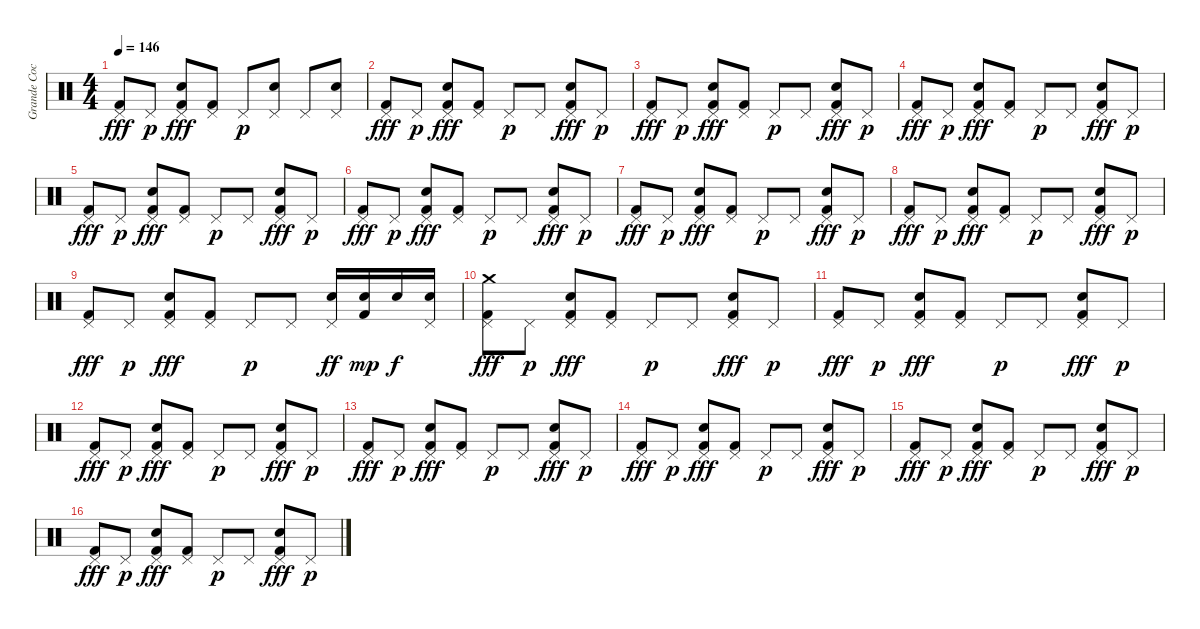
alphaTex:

\track ("Grande Coco !" "Grande Coc") {instrument percussion}
\staff {score}
\articulation defaults
\ts (4 4)
\tempo 146
\clef neutral
\ks c
("Pedal Hi-Hat (hit)" "Kick (hit) 2").8{dy fff} "Pedal Hi-Hat (hit)".8{dy p} ("Pedal Hi-Hat (hit)" "Electric Snare (hit)" "Kick (hit) 2").8{dy fff} ("Pedal Hi-Hat (hit)" "Kick (hit) 2").8 "Pedal Hi-Hat (hit)".8{dy p} ("Pedal Hi-Hat (hit)" "Electric Snare (hit)").8 "Pedal Hi-Hat (hit)".8 ("Pedal Hi-Hat (hit)" "Electric Snare (hit)").8 |
("Pedal Hi-Hat (hit)" "Kick (hit) 2").8{dy fff} "Pedal Hi-Hat (hit)".8{dy p} ("Pedal Hi-Hat (hit)" "Electric Snare (hit)" "Kick (hit) 2").8{dy fff} ("Pedal Hi-Hat (hit)" "Kick (hit) 2").8 "Pedal Hi-Hat (hit)".8{dy p} "Pedal Hi-Hat (hit)".8 ("Pedal Hi-Hat (hit)" "Electric Snare (hit)" "Kick (hit) 2").8{dy fff} "Pedal Hi-Hat (hit)".8{dy p} |
("Pedal Hi-Hat (hit)" "Kick (hit) 2").8{dy fff} "Pedal Hi-Hat (hit)".8{dy p} ("Pedal Hi-Hat (hit)" "Electric Snare (hit)" "Kick (hit) 2").8{dy fff} ("Pedal Hi-Hat (hit)" "Kick (hit) 2").8 "Pedal Hi-Hat (hit)".8{dy p} "Pedal Hi-Hat (hit)".8 ("Pedal Hi-Hat (hit)" "Electric Snare (hit)" "Kick (hit) 2").8{dy fff} "Pedal Hi-Hat (hit)".8{dy p} |
("Pedal Hi-Hat (hit)" "Kick (hit) 2").8{dy fff} "Pedal Hi-Hat (hit)".8{dy p} ("Pedal Hi-Hat (hit)" "Electric Snare (hit)" "Kick (hit) 2").8{dy fff} ("Pedal Hi-Hat (hit)" "Kick (hit) 2").8 "Pedal Hi-Hat (hit)".8{dy p} "Pedal Hi-Hat (hit)".8 ("Pedal Hi-Hat (hit)" "Electric Snare (hit)" "Kick (hit) 2").8{dy fff} "Pedal Hi-Hat (hit)".8{dy p} |
("Pedal Hi-Hat (hit)" "Kick (hit) 2").8{dy fff} "Pedal Hi-Hat (hit)".8{dy p} ("Pedal Hi-Hat (hit)" "Electric Snare (hit)" "Kick (hit) 2").8{dy fff} ("Pedal Hi-Hat (hit)" "Kick (hit) 2").8 "Pedal Hi-Hat (hit)".8{dy p} "Pedal Hi-Hat (hit)".8 ("Pedal Hi-Hat (hit)" "Electric Snare (hit)" "Kick (hit) 2").8{dy fff} "Pedal Hi-Hat (hit)".8{dy p} |
("Pedal Hi-Hat (hit)" "Kick (hit) 2").8{dy fff} "Pedal Hi-Hat (hit)".8{dy p} ("Pedal Hi-Hat (hit)" "Electric Snare (hit)" "Kick (hit) 2").8{dy fff} ("Pedal Hi-Hat (hit)" "Kick (hit) 2").8 "Pedal Hi-Hat (hit)".8{dy p} "Pedal Hi-Hat (hit)".8 ("Pedal Hi-Hat (hit)" "Electric Snare (hit)" "Kick (hit) 2").8{dy fff} "Pedal Hi-Hat (hit)".8{dy p} |
("Pedal Hi-Hat (hit)" "Kick (hit) 2").8{dy fff} "Pedal Hi-Hat (hit)".8{dy p} ("Pedal Hi-Hat (hit)" "Electric Snare (hit)" "Kick (hit) 2").8{dy fff} ("Pedal Hi-Hat (hit)" "Kick (hit) 2").8 "Pedal Hi-Hat (hit)".8{dy p} "Pedal Hi-Hat (hit)".8 ("Pedal Hi-Hat (hit)" "Electric Snare (hit)" "Kick (hit) 2").8{dy fff} "Pedal Hi-Hat (hit)".8{dy p} |
("Pedal Hi-Hat (hit)" "Kick (hit) 2").8{dy fff} "Pedal Hi-Hat (hit)".8{dy p} ("Pedal Hi-Hat (hit)" "Electric Snare (hit)" "Kick (hit) 2").8{dy fff} ("Pedal Hi-Hat (hit)" "Kick (hit) 2").8 "Pedal Hi-Hat (hit)".8{dy p} "Pedal Hi-Hat (hit)".8 ("Pedal Hi-Hat (hit)" "Electric Snare (hit)" "Kick (hit) 2").8{dy fff} "Pedal Hi-Hat (hit)".8{dy p} |
("Pedal Hi-Hat (hit)" "Kick (hit) 2").8{dy fff} "Pedal Hi-Hat (hit)".8{dy p} ("Pedal Hi-Hat (hit)" "Electric Snare (hit)" "Kick (hit) 2").8{dy fff} ("Pedal Hi-Hat (hit)" "Kick (hit) 2").8 "Pedal Hi-Hat (hit)".8{dy p} "Pedal Hi-Hat (hit)".8 ("Pedal Hi-Hat (hit)" "Electric Snare (hit)").16{dy ff} ("Electric Snare (hit)" "Kick (hit) 2").16{dy mp} "Electric Snare (hit)".16{dy f} ("Pedal Hi-Hat (hit)" "Electric Snare (hit)").16 |
("Pedal Hi-Hat (hit)" "Crash medium (hit)" "Kick (hit) 2").8{dy fff} "Pedal Hi-Hat (hit)".8{dy p} ("Pedal Hi-Hat (hit)" "Electric Snare (hit)" "Kick (hit) 2").8{dy fff} ("Pedal Hi-Hat (hit)" "Kick (hit) 2").8 "Pedal Hi-Hat (hit)".8{dy p} "Pedal Hi-Hat (hit)".8 ("Pedal Hi-Hat (hit)" "Electric Snare (hit)" "Kick (hit) 2").8{dy fff} "Pedal Hi-Hat (hit)".8{dy p} |
("Pedal Hi-Hat (hit)" "Kick (hit) 2").8{dy fff} "Pedal Hi-Hat (hit)".8{dy p} ("Pedal Hi-Hat (hit)" "Electric Snare (hit)" "Kick (hit) 2").8{dy fff} ("Pedal Hi-Hat (hit)" "Kick (hit) 2").8 "Pedal Hi-Hat (hit)".8{dy p} "Pedal Hi-Hat (hit)".8 ("Pedal Hi-Hat (hit)" "Electric Snare (hit)" "Kick (hit) 2").8{dy fff} "Pedal Hi-Hat (hit)".8{dy p} |
("Pedal Hi-Hat (hit)" "Kick (hit) 2").8{dy fff} "Pedal Hi-Hat (hit)".8{dy p} ("Pedal Hi-Hat (hit)" "Electric Snare (hit)" "Kick (hit) 2").8{dy fff} ("Pedal Hi-Hat (hit)" "Kick (hit) 2").8 "Pedal Hi-Hat (hit)".8{dy p} "Pedal Hi-Hat (hit)".8 ("Pedal Hi-Hat (hit)" "Electric Snare (hit)" "Kick (hit) 2").8{dy fff} "Pedal Hi-Hat (hit)".8{dy p} |
("Pedal Hi-Hat (hit)" "Kick (hit) 2").8{dy fff} "Pedal Hi-Hat (hit)".8{dy p} ("Pedal Hi-Hat (hit)" "Electric Snare (hit)" "Kick (hit) 2").8{dy fff} ("Pedal Hi-Hat (hit)" "Kick (hit) 2").8 "Pedal Hi-Hat (hit)".8{dy p} "Pedal Hi-Hat (hit)".8 ("Pedal Hi-Hat (hit)" "Electric Snare (hit)" "Kick (hit) 2").8{dy fff} "Pedal Hi-Hat (hit)".8{dy p} |
("Pedal Hi-Hat (hit)" "Kick (hit) 2").8{dy fff} "Pedal Hi-Hat (hit)".8{dy p} ("Pedal Hi-Hat (hit)" "Electric Snare (hit)" "Kick (hit) 2").8{dy fff} ("Pedal Hi-Hat (hit)" "Kick (hit) 2").8 "Pedal Hi-Hat (hit)".8{dy p} "Pedal Hi-Hat (hit)".8 ("Pedal Hi-Hat (hit)" "Electric Snare (hit)" "Kick (hit) 2").8{dy fff} "Pedal Hi-Hat (hit)".8{dy p} |
("Pedal Hi-Hat (hit)" "Kick (hit) 2").8{dy fff} "Pedal Hi-Hat (hit)".8{dy p} ("Pedal Hi-Hat (hit)" "Electric Snare (hit)" "Kick (hit) 2").8{dy fff} ("Pedal Hi-Hat (hit)" "Kick (hit) 2").8 "Pedal Hi-Hat (hit)".8{dy p} "Pedal Hi-Hat (hit)".8 ("Pedal Hi-Hat (hit)" "Electric Snare (hit)" "Kick (hit) 2").8{dy fff} "Pedal Hi-Hat (hit)".8{dy p} |
("Pedal Hi-Hat (hit)" "Kick (hit) 2").8{dy fff} "Pedal Hi-Hat (hit)".8{dy p} ("Pedal Hi-Hat (hit)" "Electric Snare (hit)" "Kick (hit) 2").8{dy fff} ("Pedal Hi-Hat (hit)" "Kick (hit) 2").8 "Pedal Hi-Hat (hit)".8{dy p} "Pedal Hi-Hat (hit)".8 ("Pedal Hi-Hat (hit)" "Electric Snare (hit)" "Kick (hit) 2").8{dy fff} "Pedal Hi-Hat (hit)".8{dy p}
